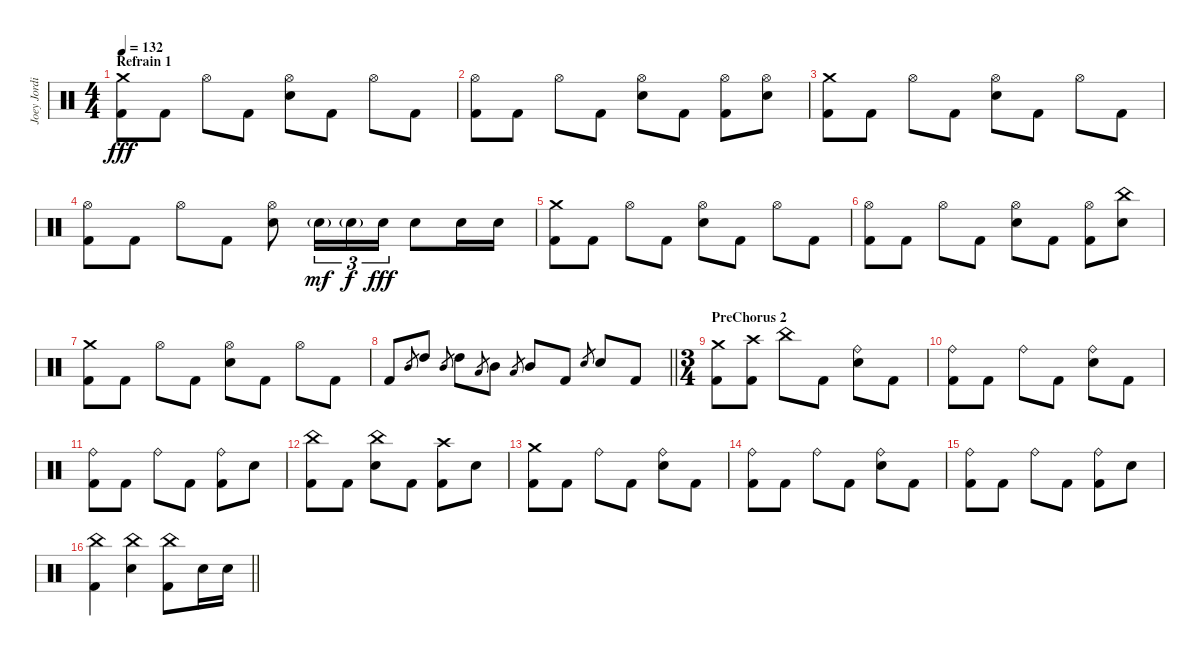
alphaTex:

\track ("Joey Jordison" "Joey Jordi") {instrument percussion}
\staff {score}
\articulation defaults
\ts (4 4)
\section ("" "Refrain 1")
\tempo 132
\clef neutral
\ks c
("Crash medium (hit)" "Kick (hit) 2").8{dy fff} "Kick (hit) 2".8 "Hi-Hat (open)".8 "Kick (hit) 2".8 ("Hi-Hat (open)" "Electric Snare (hit)").8 "Kick (hit) 2".8 "Hi-Hat (open)".8 "Kick (hit) 2".8 |
("Hi-Hat (open)" "Kick (hit) 2").8 "Kick (hit) 2".8 "Hi-Hat (open)".8 "Kick (hit) 2".8 ("Hi-Hat (open)" "Electric Snare (hit)").8 "Kick (hit) 2".8 ("Hi-Hat (open)" "Kick (hit) 2").8 ("Hi-Hat (open)" "Electric Snare (hit)").8 |
("Crash medium (hit)" "Kick (hit) 2").8 "Kick (hit) 2".8 "Hi-Hat (open)".8 "Kick (hit) 2".8 ("Hi-Hat (open)" "Electric Snare (hit)").8 "Kick (hit) 2".8 "Hi-Hat (open)".8 "Kick (hit) 2".8 |
("Hi-Hat (open)" "Kick (hit) 2").8 "Kick (hit) 2".8 "Hi-Hat (open)".8 "Kick (hit) 2".8 ("Hi-Hat (open)" "Electric Snare (hit)").8 "Electric Snare (hit)"{g}.16{tu (3 2) dy mf} "Electric Snare (hit)"{g}.16{tu (3 2) dy f} "Electric Snare (hit)".16{tu (3 2) dy fff} "Electric Snare (hit)".8 "Electric Snare (hit)".16 "Electric Snare (hit)".16 |
("Crash medium (hit)" "Kick (hit) 2").8 "Kick (hit) 2".8 "Hi-Hat (open)".8 "Kick (hit) 2".8 ("Hi-Hat (open)" "Electric Snare (hit)").8 "Kick (hit) 2".8 "Hi-Hat (open)".8 "Kick (hit) 2".8 |
("Hi-Hat (open)" "Kick (hit) 2").8 "Kick (hit) 2".8 "Hi-Hat (open)".8 "Kick (hit) 2".8 ("Hi-Hat (open)" "Electric Snare (hit)").8 "Kick (hit) 2".8 ("Hi-Hat (open)" "Kick (hit) 2").8 ("China (hit)" "Electric Snare (hit)").8 |
("Crash medium (hit)" "Kick (hit) 2").8 "Kick (hit) 2".8 "Hi-Hat (open)".8 "Kick (hit) 2".8 ("Hi-Hat (open)" "Electric Snare (hit)").8 "Kick (hit) 2".8 "Hi-Hat (open)".8 "Kick (hit) 2".8 |
\barLineRight lightlight "Kick (hit) 2".8 "Mid Tom (hit)".8{gr} "High Tom (hit)".8 "Mid Tom (hit)".8{gr} "High Tom (hit)".8 "Low Tom (hit)".8{gr} "Mid Tom (hit)".8 "Low Tom (hit)".8{gr} "Mid Tom (hit)".8 "Kick (hit) 2".8 "Electric Snare (hit)".8{gr} "Electric Snare (hit)".8 "Kick (hit) 2".8
|
\ts (3 4)
\section ("" "PreChorus 2")
("Crash medium (hit)" "Kick (hit) 2").8 ("Crash high (hit)" "Kick (hit) 2").8 "China (hit)".8 "Kick (hit) 2".8 ("Ride (bell)" "Electric Snare (hit)").8 "Kick (hit) 2".8 |
("Ride (bell)" "Kick (hit) 2").8 "Kick (hit) 2".8 "Ride (bell)".8 "Kick (hit) 2".8 ("Ride (bell)" "Electric Snare (hit)").8 "Kick (hit) 2".8 |
("Ride (bell)" "Kick (hit) 2").8 "Kick (hit) 2".8 "Ride (bell)".8 "Kick (hit) 2".8 ("Ride (bell)" "Kick (hit) 2").8 "Electric Snare (hit)".8 |
("China (hit)" "Kick (hit) 2").8 "Kick (hit) 2".8 ("China (hit)" "Electric Snare (hit)").8 "Kick (hit) 2".8 ("Crash high (hit)" "Kick (hit) 2").8 "Electric Snare (hit)".8 |
("Crash medium (hit)" "Kick (hit) 2").8 "Kick (hit) 2".8 "Ride (bell)".8 "Kick (hit) 2".8 ("Ride (bell)" "Electric Snare (hit)").8 "Kick (hit) 2".8 |
("Ride (bell)" "Kick (hit) 2").8 "Kick (hit) 2".8 "Ride (bell)".8 "Kick (hit) 2".8 ("Ride (bell)" "Electric Snare (hit)").8 "Kick (hit) 2".8 |
("Ride (bell)" "Kick (hit) 2").8 "Kick (hit) 2".8 "Ride (bell)".8 "Kick (hit) 2".8 ("Ride (bell)" "Kick (hit) 2").8 "Electric Snare (hit)".8 |
\barLineRight lightlight
("China (hit)" "Kick (hit) 2").4 ("China (hit)" "Electric Snare (hit)").4 ("China (hit)" "Kick (hit) 2").8 "Electric Snare (hit)".16 "Electric Snare (hit)".16
